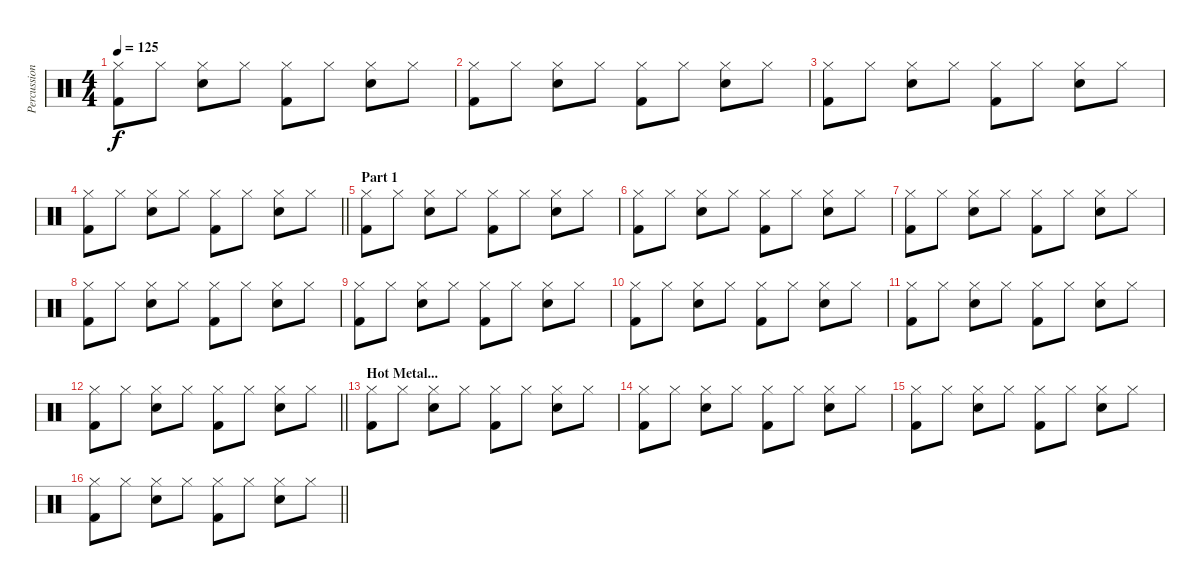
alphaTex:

\track ("Percussion" "Percussion") {instrument percussion}
\staff {score}
\articulation defaults
\ts (4 4)
\tempo 125
\clef neutral
\ks c
("Hi-Hat (closed)" "Kick (hit) 2").8{dy f} "Hi-Hat (closed)".8 ("Hi-Hat (closed)" "Electric Snare (hit)").8 "Hi-Hat (closed)".8 ("Hi-Hat (closed)" "Kick (hit) 2").8 "Hi-Hat (closed)".8 ("Hi-Hat (closed)" "Electric Snare (hit)").8 "Hi-Hat (closed)".8 |
("Hi-Hat (closed)" "Kick (hit) 2").8 "Hi-Hat (closed)".8 ("Hi-Hat (closed)" "Electric Snare (hit)").8 "Hi-Hat (closed)".8 ("Hi-Hat (closed)" "Kick (hit) 2").8 "Hi-Hat (closed)".8 ("Hi-Hat (closed)" "Electric Snare (hit)").8 "Hi-Hat (closed)".8 |
("Hi-Hat (closed)" "Kick (hit) 2").8 "Hi-Hat (closed)".8 ("Hi-Hat (closed)" "Electric Snare (hit)").8 "Hi-Hat (closed)".8 ("Hi-Hat (closed)" "Kick (hit) 2").8 "Hi-Hat (closed)".8 ("Hi-Hat (closed)" "Electric Snare (hit)").8 "Hi-Hat (closed)".8 |
\barLineRight lightlight
("Hi-Hat (closed)" "Kick (hit) 2").8 "Hi-Hat (closed)".8 ("Hi-Hat (closed)" "Electric Snare (hit)").8 "Hi-Hat (closed)".8 ("Hi-Hat (closed)" "Kick (hit) 2").8 "Hi-Hat (closed)".8 ("Hi-Hat (closed)" "Electric Snare (hit)").8 "Hi-Hat (closed)".8 |
\section ("" "Part 1")
("Hi-Hat (closed)" "Kick (hit) 2").8 "Hi-Hat (closed)".8 ("Hi-Hat (closed)" "Electric Snare (hit)").8 "Hi-Hat (closed)".8 ("Hi-Hat (closed)" "Kick (hit) 2").8 "Hi-Hat (closed)".8 ("Hi-Hat (closed)" "Electric Snare (hit)").8 "Hi-Hat (closed)".8 |
("Hi-Hat (closed)" "Kick (hit) 2").8 "Hi-Hat (closed)".8 ("Hi-Hat (closed)" "Electric Snare (hit)").8 "Hi-Hat (closed)".8 ("Hi-Hat (closed)" "Kick (hit) 2").8 "Hi-Hat (closed)".8 ("Hi-Hat (closed)" "Electric Snare (hit)").8 "Hi-Hat (closed)".8 |
("Hi-Hat (closed)" "Kick (hit) 2").8 "Hi-Hat (closed)".8 ("Hi-Hat (closed)" "Electric Snare (hit)").8 "Hi-Hat (closed)".8 ("Hi-Hat (closed)" "Kick (hit) 2").8 "Hi-Hat (closed)".8 ("Hi-Hat (closed)" "Electric Snare (hit)").8 "Hi-Hat (closed)".8 |
("Hi-Hat (closed)" "Kick (hit) 2").8 "Hi-Hat (closed)".8 ("Hi-Hat (closed)" "Electric Snare (hit)").8 "Hi-Hat (closed)".8 ("Hi-Hat (closed)" "Kick (hit) 2").8 "Hi-Hat (closed)".8 ("Hi-Hat (closed)" "Electric Snare (hit)").8 "Hi-Hat (closed)".8 |
("Hi-Hat (closed)" "Kick (hit) 2").8 "Hi-Hat (closed)".8 ("Hi-Hat (closed)" "Electric Snare (hit)").8 "Hi-Hat (closed)".8 ("Hi-Hat (closed)" "Kick (hit) 2").8 "Hi-Hat (closed)".8 ("Hi-Hat (closed)" "Electric Snare (hit)").8 "Hi-Hat (closed)".8 |
("Hi-Hat (closed)" "Kick (hit) 2").8 "Hi-Hat (closed)".8 ("Hi-Hat (closed)" "Electric Snare (hit)").8 "Hi-Hat (closed)".8 ("Hi-Hat (closed)" "Kick (hit) 2").8 "Hi-Hat (closed)".8 ("Hi-Hat (closed)" "Electric Snare (hit)").8 "Hi-Hat (closed)".8 |
("Hi-Hat (closed)" "Kick (hit) 2").8 "Hi-Hat (closed)".8 ("Hi-Hat (closed)" "Electric Snare (hit)").8 "Hi-Hat (closed)".8 ("Hi-Hat (closed)" "Kick (hit) 2").8 "Hi-Hat (closed)".8 ("Hi-Hat (closed)" "Electric Snare (hit)").8 "Hi-Hat (closed)".8 |
\barLineRight lightlight
("Hi-Hat (closed)" "Kick (hit) 2").8 "Hi-Hat (closed)".8 ("Hi-Hat (closed)" "Electric Snare (hit)").8 "Hi-Hat (closed)".8 ("Hi-Hat (closed)" "Kick (hit) 2").8 "Hi-Hat (closed)".8 ("Hi-Hat (closed)" "Electric Snare (hit)").8 "Hi-Hat (closed)".8 |
\section ("" "Hot Metal...")
("Hi-Hat (closed)" "Kick (hit) 2").8 "Hi-Hat (closed)".8 ("Hi-Hat (closed)" "Electric Snare (hit)").8 "Hi-Hat (closed)".8 ("Hi-Hat (closed)" "Kick (hit) 2").8 "Hi-Hat (closed)".8 ("Hi-Hat (closed)" "Electric Snare (hit)").8 "Hi-Hat (closed)".8 |
("Hi-Hat (closed)" "Kick (hit) 2").8 "Hi-Hat (closed)".8 ("Hi-Hat (closed)" "Electric Snare (hit)").8 "Hi-Hat (closed)".8 ("Hi-Hat (closed)" "Kick (hit) 2").8 "Hi-Hat (closed)".8 ("Hi-Hat (closed)" "Electric Snare (hit)").8 "Hi-Hat (closed)".8 |
("Hi-Hat (closed)" "Kick (hit) 2").8 "Hi-Hat (closed)".8 ("Hi-Hat (closed)" "Electric Snare (hit)").8 "Hi-Hat (closed)".8 ("Hi-Hat (closed)" "Kick (hit) 2").8 "Hi-Hat (closed)".8 ("Hi-Hat (closed)" "Electric Snare (hit)").8 "Hi-Hat (closed)".8 |
\barLineRight lightlight
("Hi-Hat (closed)" "Kick (hit) 2").8 "Hi-Hat (closed)".8 ("Hi-Hat (closed)" "Electric Snare (hit)").8 "Hi-Hat (closed)".8 ("Hi-Hat (closed)" "Kick (hit) 2").8 "Hi-Hat (closed)".8 ("Hi-Hat (closed)" "Electric Snare (hit)").8 "Hi-Hat (closed)".8
